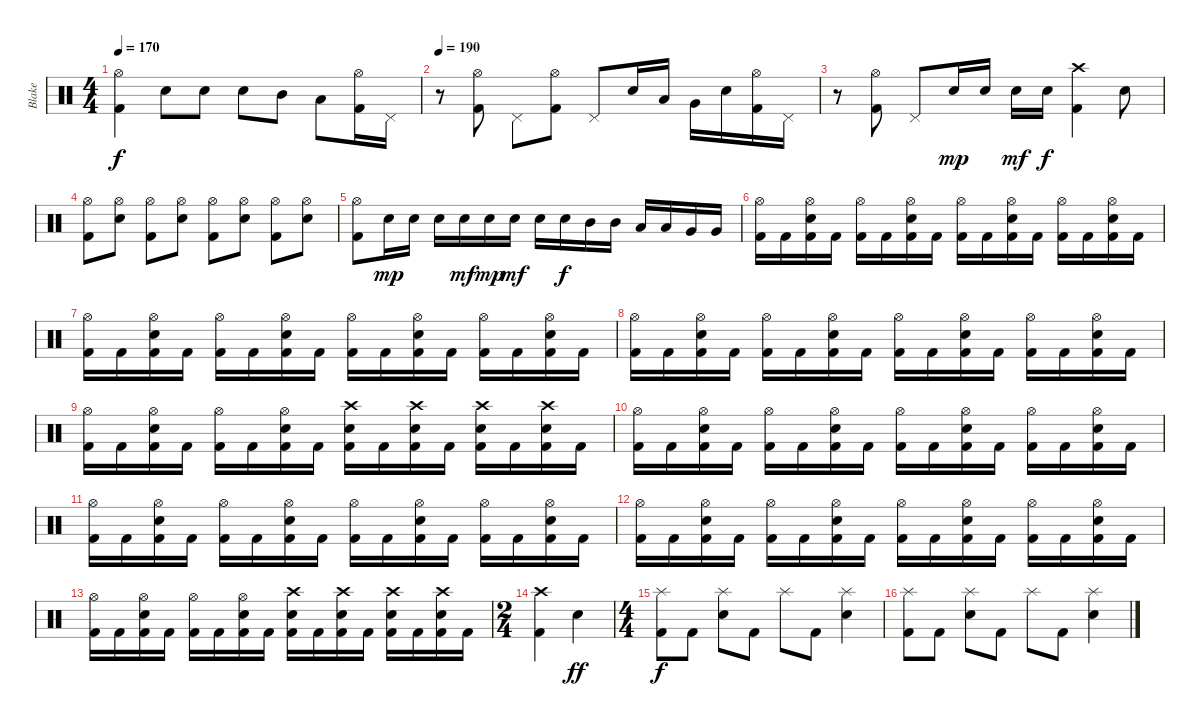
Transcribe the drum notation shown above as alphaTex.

\track ("Blake" "Blake") {instrument percussion}
\staff {score}
\articulation defaults
\ts (4 4)
\tempo 170
\clef neutral
\ks c
("Hi-Hat (open)" "Kick (hit) 2").4{dy f} "Snare (hit) 2".8 "Snare (hit) 2".8 "Snare (hit) 2".8 "Mid Tom (hit)".8 "Low Tom (hit)".8 ("Hi-Hat (open)" "Kick (hit) 2").16 "Pedal Hi-Hat (hit)".16 |
\tempo 190
r.8 ("Hi-Hat (open)" "Kick (hit) 2").8 "Pedal Hi-Hat (hit)".8 ("Hi-Hat (open)" "Kick (hit) 2").8 "Pedal Hi-Hat (hit)".8 "Snare (hit) 2".16 "Low Tom (hit)".16 "Very Low Tom (hit)".16 "Snare (hit) 2".16 ("Hi-Hat (open)" "Kick (hit) 2").16 "Pedal Hi-Hat (hit)".16 |
r.8 ("Hi-Hat (open)" "Kick (hit) 2").8 "Pedal Hi-Hat (hit)".8 "Snare (hit) 2".16{dy mp} "Snare (hit) 2".16 "Snare (hit) 2".16{dy mf} "Snare (hit) 2".16{dy f} ("Crash high (hit)" "Kick (hit) 2").4 "Snare (hit) 2".8 |
("Hi-Hat (open)" "Kick (hit) 2").8 ("Hi-Hat (open)" "Snare (hit) 2").8 ("Hi-Hat (open)" "Kick (hit) 2").8 ("Hi-Hat (open)" "Snare (hit) 2").8 ("Hi-Hat (open)" "Kick (hit) 2").8 ("Hi-Hat (open)" "Snare (hit) 2").8 ("Hi-Hat (open)" "Kick (hit) 2").8 ("Hi-Hat (open)" "Snare (hit) 2").8 |
("Hi-Hat (open)" "Kick (hit) 2").8 "Snare (hit) 2".16{dy mp} "Snare (hit) 2".16 "Snare (hit) 2".16 "Snare (hit) 2".16{dy mf} "Snare (hit) 2".16{dy mp} "Snare (hit) 2".16{dy mf} "Snare (hit) 2".16 "Snare (hit) 2".16{dy f} "Mid Tom (hit)".16 "Mid Tom (hit)".16 "Low Tom (hit)".16 "Low Tom (hit)".16 "Very Low Tom (hit)".16 "Very Low Tom (hit)".16 |
("Hi-Hat (open)" "Kick (hit) 2").16 "Kick (hit) 2".16 ("Hi-Hat (open)" "Snare (hit) 2" "Kick (hit) 2").16 "Kick (hit) 2".16 ("Hi-Hat (open)" "Kick (hit) 2").16 "Kick (hit) 2".16 ("Hi-Hat (open)" "Snare (hit) 2" "Kick (hit) 2").16 "Kick (hit) 2".16 ("Hi-Hat (open)" "Kick (hit) 2").16 "Kick (hit) 2".16 ("Hi-Hat (open)" "Snare (hit) 2" "Kick (hit) 2").16 "Kick (hit) 2".16 ("Hi-Hat (open)" "Kick (hit) 2").16 "Kick (hit) 2".16 ("Hi-Hat (open)" "Snare (hit) 2" "Kick (hit) 2").16 "Kick (hit) 2".16 |
("Hi-Hat (open)" "Kick (hit) 2").16 "Kick (hit) 2".16 ("Hi-Hat (open)" "Snare (hit) 2" "Kick (hit) 2").16 "Kick (hit) 2".16 ("Hi-Hat (open)" "Kick (hit) 2").16 "Kick (hit) 2".16 ("Hi-Hat (open)" "Snare (hit) 2" "Kick (hit) 2").16 "Kick (hit) 2".16 ("Hi-Hat (open)" "Kick (hit) 2").16 "Kick (hit) 2".16 ("Hi-Hat (open)" "Snare (hit) 2" "Kick (hit) 2").16 "Kick (hit) 2".16 ("Hi-Hat (open)" "Kick (hit) 2").16 "Kick (hit) 2".16 ("Hi-Hat (open)" "Snare (hit) 2" "Kick (hit) 2").16 "Kick (hit) 2".16 |
("Hi-Hat (open)" "Kick (hit) 2").16 "Kick (hit) 2".16 ("Hi-Hat (open)" "Snare (hit) 2" "Kick (hit) 2").16 "Kick (hit) 2".16 ("Hi-Hat (open)" "Kick (hit) 2").16 "Kick (hit) 2".16 ("Hi-Hat (open)" "Snare (hit) 2" "Kick (hit) 2").16 "Kick (hit) 2".16 ("Hi-Hat (open)" "Kick (hit) 2").16 "Kick (hit) 2".16 ("Hi-Hat (open)" "Snare (hit) 2" "Kick (hit) 2").16 "Kick (hit) 2".16 ("Hi-Hat (open)" "Kick (hit) 2").16 "Kick (hit) 2".16 ("Hi-Hat (open)" "Snare (hit) 2" "Kick (hit) 2").16 "Kick (hit) 2".16 |
("Hi-Hat (open)" "Kick (hit) 2").16 "Kick (hit) 2".16 ("Hi-Hat (open)" "Snare (hit) 2" "Kick (hit) 2").16 "Kick (hit) 2".16 ("Hi-Hat (open)" "Kick (hit) 2").16 "Kick (hit) 2".16 ("Hi-Hat (open)" "Snare (hit) 2" "Kick (hit) 2").16 "Kick (hit) 2".16 ("Crash high (hit)" "Snare (hit) 2" "Kick (hit) 2").16 "Kick (hit) 2".16 ("Crash high (hit)" "Snare (hit) 2" "Kick (hit) 2").16 "Kick (hit) 2".16 ("Crash high (hit)" "Snare (hit) 2" "Kick (hit) 2").16 "Kick (hit) 2".16 ("Crash high (hit)" "Snare (hit) 2" "Kick (hit) 2").16 "Kick (hit) 2".16 |
("Hi-Hat (open)" "Kick (hit) 2").16 "Kick (hit) 2".16 ("Hi-Hat (open)" "Snare (hit) 2" "Kick (hit) 2").16 "Kick (hit) 2".16 ("Hi-Hat (open)" "Kick (hit) 2").16 "Kick (hit) 2".16 ("Hi-Hat (open)" "Snare (hit) 2" "Kick (hit) 2").16 "Kick (hit) 2".16 ("Hi-Hat (open)" "Kick (hit) 2").16 "Kick (hit) 2".16 ("Hi-Hat (open)" "Snare (hit) 2" "Kick (hit) 2").16 "Kick (hit) 2".16 ("Hi-Hat (open)" "Kick (hit) 2").16 "Kick (hit) 2".16 ("Hi-Hat (open)" "Snare (hit) 2" "Kick (hit) 2").16 "Kick (hit) 2".16 |
("Hi-Hat (open)" "Kick (hit) 2").16 "Kick (hit) 2".16 ("Hi-Hat (open)" "Snare (hit) 2" "Kick (hit) 2").16 "Kick (hit) 2".16 ("Hi-Hat (open)" "Kick (hit) 2").16 "Kick (hit) 2".16 ("Hi-Hat (open)" "Snare (hit) 2" "Kick (hit) 2").16 "Kick (hit) 2".16 ("Hi-Hat (open)" "Kick (hit) 2").16 "Kick (hit) 2".16 ("Hi-Hat (open)" "Snare (hit) 2" "Kick (hit) 2").16 "Kick (hit) 2".16 ("Hi-Hat (open)" "Kick (hit) 2").16 "Kick (hit) 2".16 ("Hi-Hat (open)" "Snare (hit) 2" "Kick (hit) 2").16 "Kick (hit) 2".16 |
("Hi-Hat (open)" "Kick (hit) 2").16 "Kick (hit) 2".16 ("Hi-Hat (open)" "Snare (hit) 2" "Kick (hit) 2").16 "Kick (hit) 2".16 ("Hi-Hat (open)" "Kick (hit) 2").16 "Kick (hit) 2".16 ("Hi-Hat (open)" "Snare (hit) 2" "Kick (hit) 2").16 "Kick (hit) 2".16 ("Hi-Hat (open)" "Kick (hit) 2").16 "Kick (hit) 2".16 ("Hi-Hat (open)" "Snare (hit) 2" "Kick (hit) 2").16 "Kick (hit) 2".16 ("Hi-Hat (open)" "Kick (hit) 2").16 "Kick (hit) 2".16 ("Hi-Hat (open)" "Snare (hit) 2" "Kick (hit) 2").16 "Kick (hit) 2".16 |
("Hi-Hat (open)" "Kick (hit) 2").16 "Kick (hit) 2".16 ("Hi-Hat (open)" "Snare (hit) 2" "Kick (hit) 2").16 "Kick (hit) 2".16 ("Hi-Hat (open)" "Kick (hit) 2").16 "Kick (hit) 2".16 ("Hi-Hat (open)" "Snare (hit) 2" "Kick (hit) 2").16 "Kick (hit) 2".16 ("Crash high (hit)" "Snare (hit) 2" "Kick (hit) 2").16 "Kick (hit) 2".16 ("Crash high (hit)" "Snare (hit) 2" "Kick (hit) 2").16 "Kick (hit) 2".16 ("Crash high (hit)" "Snare (hit) 2" "Kick (hit) 2").16 "Kick (hit) 2".16 ("Crash high (hit)" "Snare (hit) 2" "Kick (hit) 2").16 "Kick (hit) 2".16 |
\ts (2 4)
("Crash high (hit)" "Kick (hit) 2").4 "Snare (hit) 2".4{dy ff} |
\ts (4 4)
("Splash (hit)" "Kick (hit) 2").8{dy f} "Kick (hit) 2".8 ("Splash (hit)" "Snare (hit) 2").8 "Kick (hit) 2".8 "Splash (hit)".8 "Kick (hit) 2".8 ("Splash (hit)" "Snare (hit) 2").4 |
("Splash (hit)" "Kick (hit) 2").8 "Kick (hit) 2".8 ("Splash (hit)" "Snare (hit) 2").8 "Kick (hit) 2".8 "Splash (hit)".8 "Kick (hit) 2".8 ("Splash (hit)" "Snare (hit) 2").4
